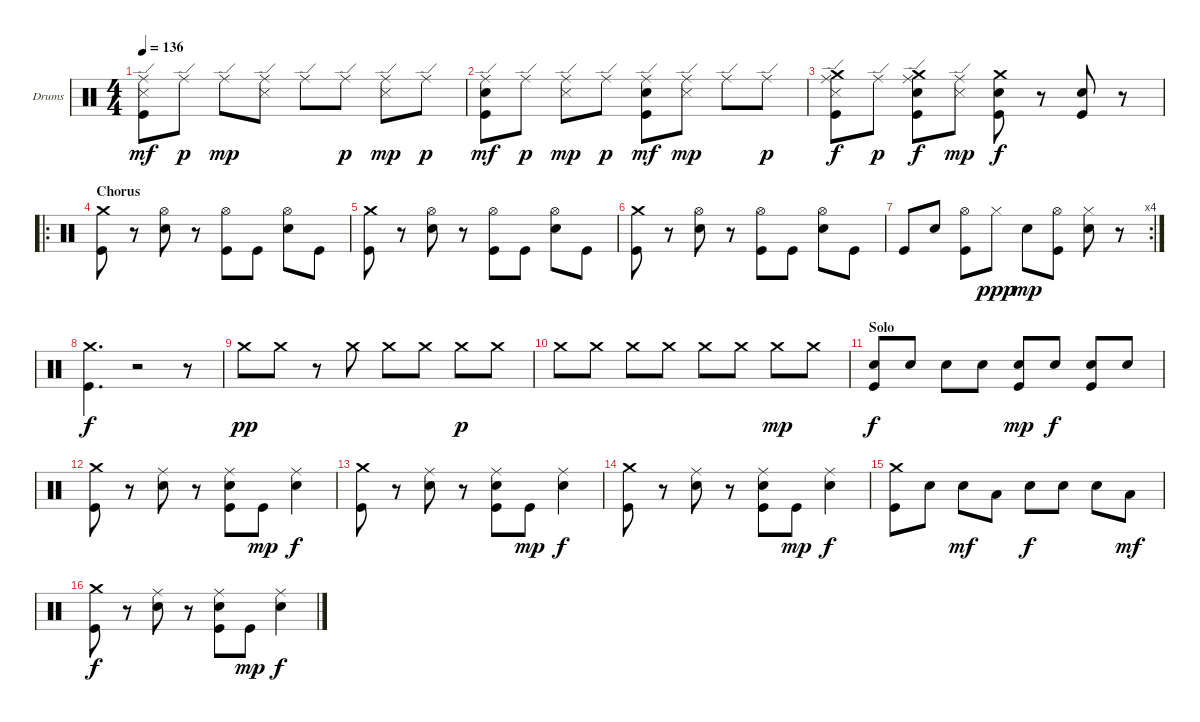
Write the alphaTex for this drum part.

\bracketExtendMode groupsimilarinstruments
\firstSystemTrackNameOrientation horizontal
\otherSystemsTrackNameOrientation horizontal
\track ("Drumkit" "Drums") {instrument percussion}
\staff {score}
\articulation defaults
\ts (4 4)
\tempo 136
\clef neutral
\ks c
("Kick (hit)" "Snare (side stick) 3" "Ride (edge)").8{dy mf} "Ride (edge)".8{dy p} "Ride (edge)".8{dy mp} ("Snare (side stick) 3" "Ride (edge)").8 "Ride (edge)".8 "Ride (edge)".8{dy p} ("Snare (side stick) 3" "Ride (edge)").8{dy mp} "Ride (edge)".8{dy p} |
("Kick (hit)" "Snare (hit) 2" "Ride (edge)").8{dy mf} "Ride (edge)".8{dy p} ("Snare (side stick) 3" "Ride (edge)").8{dy mp} "Ride (edge)".8{dy p} ("Kick (hit)" "Snare (hit) 2" "Ride (edge)").8{dy mf} ("Snare (side stick) 3" "Ride (edge)").8{dy mp} "Ride (edge)".8 "Ride (edge)".8{dy p} |
("Kick (hit)" "Snare (side stick) 3" "Crash medium (hit)" "Ride (edge)").8{dy f} "Ride (edge)".8{dy p} ("Kick (hit)" "Snare (hit) 2" "Crash medium (hit)" "Ride (edge)").8{dy f} ("Snare (side stick) 3" "Ride (edge)").8{dy mp} ("Kick (hit)" "Snare (hit) 2" "Crash medium (hit)").8{dy f} r.8 ("Kick (hit)" "Snare (hit) 2").8 r.8 |
\ro
\section ("" "Chorus")
("Kick (hit)" "Crash medium (hit)").8 r.8 ("Snare (hit) 2" "Hi-Hat (open)").8 r.8 ("Kick (hit)" "Hi-Hat (open)").8 "Kick (hit)".8 ("Snare (hit) 2" "Hi-Hat (open)").8 "Kick (hit)".8 |
("Kick (hit)" "Crash medium (hit)").8 r.8 ("Snare (hit) 2" "Hi-Hat (open)").8 r.8 ("Kick (hit)" "Hi-Hat (open)").8 "Kick (hit)".8 ("Snare (hit) 2" "Hi-Hat (open)").8 "Kick (hit)".8 |
("Kick (hit)" "Crash medium (hit)").8 r.8 ("Snare (hit) 2" "Hi-Hat (open)").8 r.8 ("Kick (hit)" "Hi-Hat (open)").8 "Kick (hit)".8 ("Snare (hit) 2" "Hi-Hat (open)").8 "Kick (hit)".8 |
\rc 4 "Kick (hit)".8 "Snare (hit) 2".8
("Kick (hit)" "Hi-Hat (open)").8 "Hi-Hat (closed)".8{dy ppp} "Snare (hit) 2".8{dy mp} ("Kick (hit)" "Hi-Hat (open)").8 ("Snare (hit) 2" "Hi-Hat (closed)").8 r.8 |
("Kick (hit)" "Crash medium (hit)").4{d dy f} r.2 r.8 |
"Crash medium (hit)".8{dy pp} "Crash medium (hit)".8 r.8 "Crash medium (hit)".8 "Crash medium (hit)".8 "Crash medium (hit)".8 "Crash medium (hit)".8{dy p} "Crash medium (hit)".8 |
"Crash medium (hit)".8 "Crash medium (hit)".8 "Crash medium (hit)".8 "Crash medium (hit)".8 "Crash medium (hit)".8 "Crash medium (hit)".8 "Crash medium (hit)".8{dy mp} "Crash medium (hit)".8 |
\section ("" "Solo")
("Kick (hit)" "Snare (hit) 2").8{dy f} "Snare (hit) 2".8 "Snare (hit) 2".8 "Snare (hit) 2".8 ("Kick (hit)" "Snare (hit) 2").8{dy mp} "Snare (hit) 2".8{dy f} ("Kick (hit)" "Snare (hit) 2").8 "Snare (hit) 2".8 |
("Kick (hit)" "Crash medium (hit)").8 r.8 ("Snare (hit) 2" "Ride (middle)").8 r.8 ("Snare (hit) 2" "Kick (hit)" "Ride (middle)").8 "Kick (hit)".8{dy mp} ("Snare (hit) 2" "Ride (middle)").4{dy f} |
("Kick (hit)" "Crash medium (hit)").8 r.8 ("Snare (hit) 2" "Ride (middle)").8 r.8 ("Snare (hit) 2" "Kick (hit)" "Ride (middle)").8 "Kick (hit)".8{dy mp} ("Snare (hit) 2" "Ride (middle)").4{dy f} |
("Kick (hit)" "Crash medium (hit)").8 r.8 ("Snare (hit) 2" "Ride (middle)").8 r.8 ("Snare (hit) 2" "Kick (hit)" "Ride (middle)").8 "Kick (hit)".8{dy mp} ("Snare (hit) 2" "Ride (middle)").4{dy f} |
("Kick (hit)" "Crash medium (hit)").8 "Snare (hit) 2".8 "Snare (hit) 2".8{dy mf} "Low Tom (hit)".8 "Snare (hit) 2".8{dy f} "Snare (hit) 2".8 "Snare (hit) 2".8 "Low Tom (hit)".8{dy mf} |
("Kick (hit)" "Crash medium (hit)").8{dy f} r.8 ("Snare (hit) 2" "Ride (middle)").8 r.8 ("Snare (hit) 2" "Kick (hit)" "Ride (middle)").8 "Kick (hit)".8{dy mp} ("Snare (hit) 2" "Ride (middle)").4{dy f}
